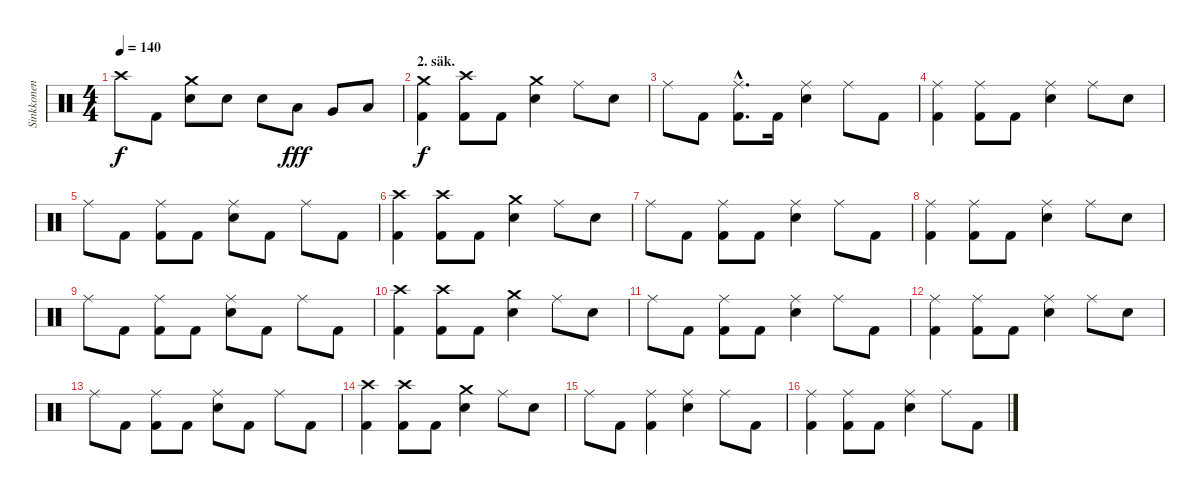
\track ("Sinkkonen" "Sinkkonen") {instrument percussion}
\staff {score}
\articulation defaults
\ts (4 4)
\tempo 140
\clef neutral
\ks c "Crash high (hit)".8{dy f} "Kick (hit) 2".8
("Crash medium (hit)" "Snare (hit) 2").8 "Snare (hit) 2".8 "Snare (hit) 2".8 "Low Tom (hit)".8{dy fff} "Very Low Tom (hit)".8 "Low Floor Tom (hit)".8 |
\section ("" "2. säk.")
("Kick (hit) 2" "Crash medium (hit)").4{dy f} ("Kick (hit) 2" "Crash high (hit)").8 "Kick (hit) 2".8 ("Crash medium (hit)" "Snare (hit) 2").4 "Ride (middle)".8 "Snare (hit) 2".8 |
"Ride (middle)".8 "Kick (hit) 2".8 ("Kick (hit) 2"{hac} "Ride (middle)"{hac}).8{d} "Kick (hit) 2".16 ("Ride (middle)" "Snare (hit) 2").4 "Ride (middle)".8 "Kick (hit) 2".8 |
("Kick (hit) 2" "Ride (middle)").4 ("Kick (hit) 2" "Ride (middle)").8 "Kick (hit) 2".8 ("Ride (middle)" "Snare (hit) 2").4 "Ride (middle)".8 "Snare (hit) 2".8 |
"Ride (middle)".8 "Kick (hit) 2".8 ("Kick (hit) 2" "Ride (middle)").8 "Kick (hit) 2".8 ("Ride (middle)" "Snare (hit) 2").8 "Kick (hit) 2".8 "Ride (middle)".8 "Kick (hit) 2".8 |
("Kick (hit) 2" "Crash high (hit)").4 ("Kick (hit) 2" "Crash high (hit)").8 "Kick (hit) 2".8 ("Crash medium (hit)" "Snare (hit) 2").4 "Ride (middle)".8 "Snare (hit) 2".8 |
"Ride (middle)".8 "Kick (hit) 2".8 ("Kick (hit) 2" "Ride (middle)").8 "Kick (hit) 2".8 ("Ride (middle)" "Snare (hit) 2").4 "Ride (middle)".8 "Kick (hit) 2".8 |
("Kick (hit) 2" "Ride (middle)").4 ("Kick (hit) 2" "Ride (middle)").8 "Kick (hit) 2".8 ("Ride (middle)" "Snare (hit) 2").4 "Ride (middle)".8 "Snare (hit) 2".8 |
"Ride (middle)".8 "Kick (hit) 2".8 ("Kick (hit) 2" "Ride (middle)").8 "Kick (hit) 2".8 ("Ride (middle)" "Snare (hit) 2").8 "Kick (hit) 2".8 "Ride (middle)".8 "Kick (hit) 2".8 |
("Kick (hit) 2" "Crash high (hit)").4 ("Kick (hit) 2" "Crash high (hit)").8 "Kick (hit) 2".8 ("Crash medium (hit)" "Snare (hit) 2").4 "Ride (middle)".8 "Snare (hit) 2".8 |
"Ride (middle)".8 "Kick (hit) 2".8 ("Kick (hit) 2" "Ride (middle)").8 "Kick (hit) 2".8 ("Ride (middle)" "Snare (hit) 2").4 "Ride (middle)".8 "Kick (hit) 2".8 |
("Kick (hit) 2" "Ride (middle)").4 ("Kick (hit) 2" "Ride (middle)").8 "Kick (hit) 2".8 ("Ride (middle)" "Snare (hit) 2").4 "Ride (middle)".8 "Snare (hit) 2".8 |
"Ride (middle)".8 "Kick (hit) 2".8 ("Kick (hit) 2" "Ride (middle)").8 "Kick (hit) 2".8 ("Ride (middle)" "Snare (hit) 2").8 "Kick (hit) 2".8 "Ride (middle)".8 "Kick (hit) 2".8 |
("Kick (hit) 2" "Crash high (hit)").4 ("Kick (hit) 2" "Crash high (hit)").8 "Kick (hit) 2".8 ("Crash medium (hit)" "Snare (hit) 2").4 "Ride (middle)".8 "Snare (hit) 2".8 |
"Ride (middle)".8 "Kick (hit) 2".8 ("Kick (hit) 2" "Ride (middle)").4 ("Ride (middle)" "Snare (hit) 2").4 "Ride (middle)".8 "Kick (hit) 2".8 |
("Kick (hit) 2" "Ride (middle)").4 ("Kick (hit) 2" "Ride (middle)").8 "Kick (hit) 2".8 ("Ride (middle)" "Snare (hit) 2").4 "Ride (middle)".8 "Kick (hit) 2".8
